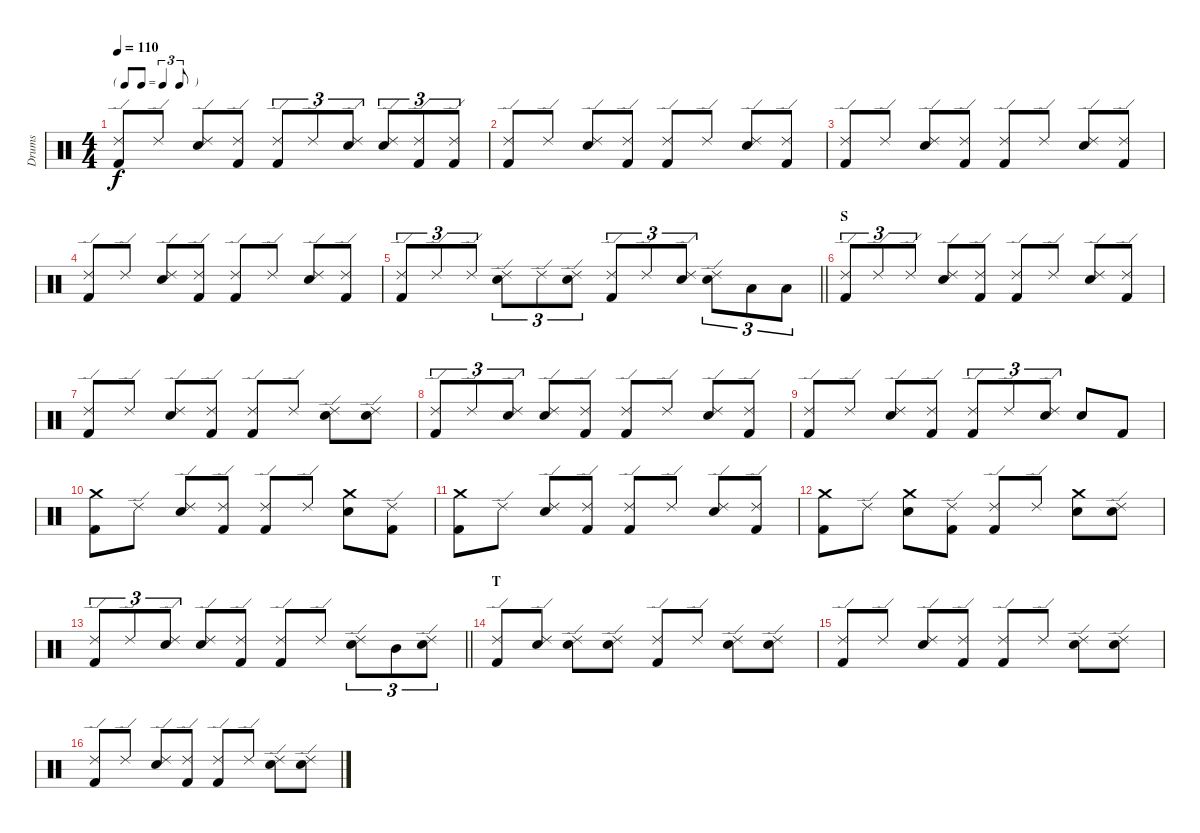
\track ("Drums" "Drums") {instrument percussion}
\staff {score}
\articulation defaults
\ts (4 4)
\tf triplet8th
\tempo 110
\clef neutral
\ks c
("Ride (edge) 2" "Kick (hit) 2").8{dy f} "Ride (edge) 2".8 ("Ride (edge) 2" "Snare (hit) 2").8 ("Ride (edge) 2" "Kick (hit) 2").8 ("Ride (edge) 2" "Kick (hit) 2").8{tu (3 2)} "Ride (edge) 2".8{tu (3 2)} ("Ride (edge) 2" "Snare (hit) 2").8{tu (3 2)} ("Ride (edge) 2" "Snare (hit) 2").8{tu (3 2)} ("Ride (edge) 2" "Kick (hit) 2").8{tu (3 2)} ("Ride (edge) 2" "Kick (hit) 2").8{tu (3 2)} |
("Ride (edge) 2" "Kick (hit) 2").8 "Ride (edge) 2".8 ("Ride (edge) 2" "Snare (hit) 2").8 ("Ride (edge) 2" "Kick (hit) 2").8 ("Ride (edge) 2" "Kick (hit) 2").8 "Ride (edge) 2".8 ("Ride (edge) 2" "Snare (hit) 2").8 ("Ride (edge) 2" "Kick (hit) 2").8 |
("Ride (edge) 2" "Kick (hit) 2").8 "Ride (edge) 2".8 ("Ride (edge) 2" "Snare (hit) 2").8 ("Ride (edge) 2" "Kick (hit) 2").8 ("Ride (edge) 2" "Kick (hit) 2").8 "Ride (edge) 2".8 ("Ride (edge) 2" "Snare (hit) 2").8 ("Ride (edge) 2" "Kick (hit) 2").8 |
("Ride (edge) 2" "Kick (hit) 2").8 "Ride (edge) 2".8 ("Ride (edge) 2" "Snare (hit) 2").8 ("Ride (edge) 2" "Kick (hit) 2").8 ("Ride (edge) 2" "Kick (hit) 2").8 "Ride (edge) 2".8 ("Ride (edge) 2" "Snare (hit) 2").8 ("Ride (edge) 2" "Kick (hit) 2").8 |
\barLineRight lightlight
("Ride (edge) 2" "Kick (hit) 2").8{tu (3 2)} "Ride (edge) 2".8{tu (3 2)} "Ride (edge) 2".8{tu (3 2)} ("Ride (edge) 2" "Snare (hit) 2").8{tu (3 2)} "Ride (edge) 2".8{tu (3 2)} ("Ride (edge) 2" "Snare (hit) 2").8{tu (3 2)} ("Ride (edge) 2" "Kick (hit) 2").8{tu (3 2)} "Ride (edge) 2".8{tu (3 2)} ("Ride (edge) 2" "Snare (hit) 2").8{tu (3 2)} ("Ride (edge) 2" "Snare (hit) 2").8{tu (3 2)} "Low Tom (hit)".8{tu (3 2)} "Low Tom (hit)".8{tu (3 2)} |
\section ("" "S")
("Ride (edge) 2" "Kick (hit) 2").8{tu (3 2)} "Ride (edge) 2".8{tu (3 2)} "Ride (edge) 2".8{tu (3 2)} ("Ride (edge) 2" "Snare (hit) 2").8 ("Ride (edge) 2" "Kick (hit) 2").8 ("Ride (edge) 2" "Kick (hit) 2").8 "Ride (edge) 2".8 ("Ride (edge) 2" "Snare (hit) 2").8 ("Ride (edge) 2" "Kick (hit) 2").8 |
("Ride (edge) 2" "Kick (hit) 2").8 "Ride (edge) 2".8 ("Ride (edge) 2" "Snare (hit) 2").8 ("Ride (edge) 2" "Kick (hit) 2").8 ("Ride (edge) 2" "Kick (hit) 2").8 "Ride (edge) 2".8 ("Ride (edge) 2" "Snare (hit) 2").8 ("Ride (edge) 2" "Snare (hit) 2").8 |
("Ride (edge) 2" "Kick (hit) 2").8{tu (3 2)} "Ride (edge) 2".8{tu (3 2)} ("Ride (edge) 2" "Snare (hit) 2").8{tu (3 2)} ("Ride (edge) 2" "Snare (hit) 2").8 ("Ride (edge) 2" "Kick (hit) 2").8 ("Ride (edge) 2" "Kick (hit) 2").8 "Ride (edge) 2".8 ("Ride (edge) 2" "Snare (hit) 2").8 ("Ride (edge) 2" "Kick (hit) 2").8 |
("Ride (edge) 2" "Kick (hit) 2").8 "Ride (edge) 2".8 ("Ride (edge) 2" "Snare (hit) 2").8 ("Ride (edge) 2" "Kick (hit) 2").8 ("Ride (edge) 2" "Kick (hit) 2").8{tu (3 2)} "Ride (edge) 2".8{tu (3 2)} ("Ride (edge) 2" "Snare (hit) 2").8{tu (3 2)} "Snare (hit) 2".8 "Kick (hit) 2".8 |
("Crash medium (hit)" "Kick (hit) 2").8 "Ride (edge) 2".8 ("Ride (edge) 2" "Snare (hit) 2").8 ("Ride (edge) 2" "Kick (hit) 2").8 ("Ride (edge) 2" "Kick (hit) 2").8 "Ride (edge) 2".8 ("Crash medium (hit)" "Snare (hit) 2").8 ("Ride (edge) 2" "Kick (hit) 2").8 |
("Crash medium (hit)" "Kick (hit) 2").8 "Ride (edge) 2".8 ("Ride (edge) 2" "Snare (hit) 2").8 ("Ride (edge) 2" "Kick (hit) 2").8 ("Ride (edge) 2" "Kick (hit) 2").8 "Ride (edge) 2".8 ("Ride (edge) 2" "Snare (hit) 2").8 ("Ride (edge) 2" "Kick (hit) 2").8 |
("Crash medium (hit)" "Kick (hit) 2").8 "Ride (edge) 2".8 ("Crash medium (hit)" "Snare (hit) 2").8 ("Ride (edge) 2" "Kick (hit) 2").8 ("Ride (edge) 2" "Kick (hit) 2").8 "Ride (edge) 2".8 ("Crash medium (hit)" "Snare (hit) 2").8 ("Ride (edge) 2" "Snare (hit) 2").8 |
\barLineRight lightlight
("Ride (edge) 2" "Kick (hit) 2").8{tu (3 2)} "Ride (edge) 2".8{tu (3 2)} ("Ride (edge) 2" "Snare (hit) 2").8{tu (3 2)} ("Ride (edge) 2" "Snare (hit) 2").8 ("Ride (edge) 2" "Kick (hit) 2").8 ("Ride (edge) 2" "Kick (hit) 2").8 "Ride (edge) 2".8 ("Ride (edge) 2" "Snare (hit) 2").8{tu (3 2)} "Mid Tom (hit)".8{tu (3 2)} ("Ride (edge) 2" "Snare (hit) 2").8{tu (3 2)} |
\section ("" "T")
("Ride (edge) 2" "Kick (hit) 2").8 ("Ride (edge) 2" "Snare (hit) 2").8 ("Ride (edge) 2" "Snare (hit) 2").8 ("Ride (edge) 2" "Snare (hit) 2").8 ("Ride (edge) 2" "Kick (hit) 2").8 "Ride (edge) 2".8 ("Ride (edge) 2" "Snare (hit) 2").8 ("Ride (edge) 2" "Snare (hit) 2").8 |
("Ride (edge) 2" "Kick (hit) 2").8 "Ride (edge) 2".8 ("Ride (edge) 2" "Snare (hit) 2").8 ("Ride (edge) 2" "Kick (hit) 2").8 ("Ride (edge) 2" "Kick (hit) 2").8 "Ride (edge) 2".8 ("Ride (edge) 2" "Snare (hit) 2").8 ("Ride (edge) 2" "Snare (hit) 2").8 |
("Ride (edge) 2" "Kick (hit) 2").8 "Ride (edge) 2".8 ("Ride (edge) 2" "Snare (hit) 2").8 ("Ride (edge) 2" "Kick (hit) 2").8 ("Ride (edge) 2" "Kick (hit) 2").8 "Ride (edge) 2".8 ("Ride (edge) 2" "Snare (hit) 2").8 ("Ride (edge) 2" "Snare (hit) 2").8
